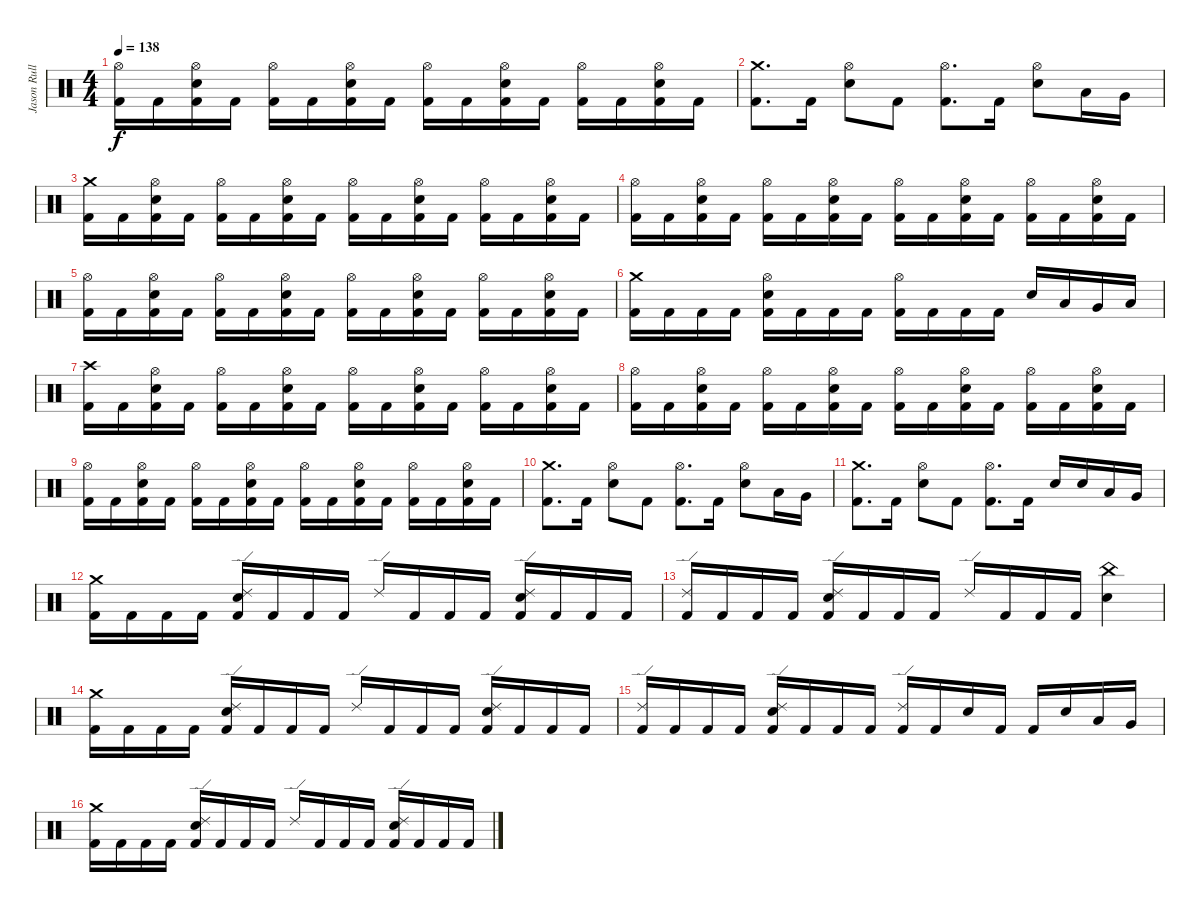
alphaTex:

\track ("Jason Rullo" "Jason Rull") {instrument percussion}
\staff {score}
\articulation defaults
\ts (4 4)
\tempo 138
\clef neutral
\ks c
("Hi-Hat (open)" "Kick (hit) 2").16{dy f} "Kick (hit) 2".16 ("Hi-Hat (open)" "Electric Snare (hit)" "Kick (hit) 2").16 "Kick (hit) 2".16 ("Hi-Hat (open)" "Kick (hit) 2").16 "Kick (hit) 2".16 ("Hi-Hat (open)" "Electric Snare (hit)" "Kick (hit) 2").16 "Kick (hit) 2".16 ("Hi-Hat (open)" "Kick (hit) 2").16 "Kick (hit) 2".16 ("Hi-Hat (open)" "Electric Snare (hit)" "Kick (hit) 2").16 "Kick (hit) 2".16 ("Hi-Hat (open)" "Kick (hit) 2").16 "Kick (hit) 2".16 ("Hi-Hat (open)" "Electric Snare (hit)" "Kick (hit) 2").16 "Kick (hit) 2".16 |
("Crash medium (hit)" "Kick (hit) 2").8{d} "Kick (hit) 2".16 ("Hi-Hat (open)" "Electric Snare (hit)").8 "Kick (hit) 2".8 ("Hi-Hat (open)" "Kick (hit) 2").8{d} "Kick (hit) 2".16 ("Hi-Hat (open)" "Electric Snare (hit)").8 "Low Tom (hit)".16 "Very Low Tom (hit)".16 |
("Crash medium (hit)" "Kick (hit) 2").16 "Kick (hit) 2".16 ("Hi-Hat (open)" "Electric Snare (hit)" "Kick (hit) 2").16 "Kick (hit) 2".16 ("Hi-Hat (open)" "Kick (hit) 2").16 "Kick (hit) 2".16 ("Hi-Hat (open)" "Electric Snare (hit)" "Kick (hit) 2").16 "Kick (hit) 2".16 ("Hi-Hat (open)" "Kick (hit) 2").16 "Kick (hit) 2".16 ("Hi-Hat (open)" "Electric Snare (hit)" "Kick (hit) 2").16 "Kick (hit) 2".16 ("Hi-Hat (open)" "Kick (hit) 2").16 "Kick (hit) 2".16 ("Hi-Hat (open)" "Electric Snare (hit)" "Kick (hit) 2").16 "Kick (hit) 2".16 |
("Hi-Hat (open)" "Kick (hit) 2").16 "Kick (hit) 2".16 ("Hi-Hat (open)" "Electric Snare (hit)" "Kick (hit) 2").16 "Kick (hit) 2".16 ("Hi-Hat (open)" "Kick (hit) 2").16 "Kick (hit) 2".16 ("Hi-Hat (open)" "Electric Snare (hit)" "Kick (hit) 2").16 "Kick (hit) 2".16 ("Hi-Hat (open)" "Kick (hit) 2").16 "Kick (hit) 2".16 ("Hi-Hat (open)" "Electric Snare (hit)" "Kick (hit) 2").16 "Kick (hit) 2".16 ("Hi-Hat (open)" "Kick (hit) 2").16 "Kick (hit) 2".16 ("Hi-Hat (open)" "Electric Snare (hit)" "Kick (hit) 2").16 "Kick (hit) 2".16 |
("Hi-Hat (open)" "Kick (hit) 2").16 "Kick (hit) 2".16 ("Hi-Hat (open)" "Electric Snare (hit)" "Kick (hit) 2").16 "Kick (hit) 2".16 ("Hi-Hat (open)" "Kick (hit) 2").16 "Kick (hit) 2".16 ("Hi-Hat (open)" "Electric Snare (hit)" "Kick (hit) 2").16 "Kick (hit) 2".16 ("Hi-Hat (open)" "Kick (hit) 2").16 "Kick (hit) 2".16 ("Hi-Hat (open)" "Electric Snare (hit)" "Kick (hit) 2").16 "Kick (hit) 2".16 ("Hi-Hat (open)" "Kick (hit) 2").16 "Kick (hit) 2".16 ("Hi-Hat (open)" "Electric Snare (hit)" "Kick (hit) 2").16 "Kick (hit) 2".16 |
("Crash medium (hit)" "Kick (hit) 2").16 "Kick (hit) 2".16 "Kick (hit) 2".16 "Kick (hit) 2".16 ("Hi-Hat (open)" "Electric Snare (hit)" "Kick (hit) 2").16 "Kick (hit) 2".16 "Kick (hit) 2".16 "Kick (hit) 2".16 ("Hi-Hat (open)" "Kick (hit) 2").16 "Kick (hit) 2".16 "Kick (hit) 2".16 "Kick (hit) 2".16 "Electric Snare (hit)".16 "Low Tom (hit)".16 "Very Low Tom (hit)".16 "Low Floor Tom (hit)".16 |
("Crash high (hit)" "Kick (hit) 2").16 "Kick (hit) 2".16 ("Hi-Hat (open)" "Electric Snare (hit)" "Kick (hit) 2").16 "Kick (hit) 2".16 ("Hi-Hat (open)" "Kick (hit) 2").16 "Kick (hit) 2".16 ("Hi-Hat (open)" "Electric Snare (hit)" "Kick (hit) 2").16 "Kick (hit) 2".16 ("Hi-Hat (open)" "Kick (hit) 2").16 "Kick (hit) 2".16 ("Hi-Hat (open)" "Electric Snare (hit)" "Kick (hit) 2").16 "Kick (hit) 2".16 ("Hi-Hat (open)" "Kick (hit) 2").16 "Kick (hit) 2".16 ("Hi-Hat (open)" "Electric Snare (hit)" "Kick (hit) 2").16 "Kick (hit) 2".16 |
("Hi-Hat (open)" "Kick (hit) 2").16 "Kick (hit) 2".16 ("Hi-Hat (open)" "Electric Snare (hit)" "Kick (hit) 2").16 "Kick (hit) 2".16 ("Hi-Hat (open)" "Kick (hit) 2").16 "Kick (hit) 2".16 ("Hi-Hat (open)" "Electric Snare (hit)" "Kick (hit) 2").16 "Kick (hit) 2".16 ("Hi-Hat (open)" "Kick (hit) 2").16 "Kick (hit) 2".16 ("Hi-Hat (open)" "Electric Snare (hit)" "Kick (hit) 2").16 "Kick (hit) 2".16 ("Hi-Hat (open)" "Kick (hit) 2").16 "Kick (hit) 2".16 ("Hi-Hat (open)" "Electric Snare (hit)" "Kick (hit) 2").16 "Kick (hit) 2".16 |
("Hi-Hat (open)" "Kick (hit) 2").16 "Kick (hit) 2".16 ("Hi-Hat (open)" "Electric Snare (hit)" "Kick (hit) 2").16 "Kick (hit) 2".16 ("Hi-Hat (open)" "Kick (hit) 2").16 "Kick (hit) 2".16 ("Hi-Hat (open)" "Electric Snare (hit)" "Kick (hit) 2").16 "Kick (hit) 2".16 ("Hi-Hat (open)" "Kick (hit) 2").16 "Kick (hit) 2".16 ("Hi-Hat (open)" "Electric Snare (hit)" "Kick (hit) 2").16 "Kick (hit) 2".16 ("Hi-Hat (open)" "Kick (hit) 2").16 "Kick (hit) 2".16 ("Hi-Hat (open)" "Electric Snare (hit)" "Kick (hit) 2").16 "Kick (hit) 2".16 |
("Crash medium (hit)" "Kick (hit) 2").8{d} "Kick (hit) 2".16 ("Hi-Hat (open)" "Electric Snare (hit)").8 "Kick (hit) 2".8 ("Hi-Hat (open)" "Kick (hit) 2").8{d} "Kick (hit) 2".16 ("Hi-Hat (open)" "Electric Snare (hit)").8 "Low Tom (hit)".16 "Very Low Tom (hit)".16 |
("Crash medium (hit)" "Kick (hit) 2").8{d} "Kick (hit) 2".16 ("Hi-Hat (open)" "Electric Snare (hit)").8 "Kick (hit) 2".8 ("Hi-Hat (open)" "Kick (hit) 2").8{d} "Kick (hit) 2".16 "Electric Snare (hit)".16 "Electric Snare (hit)".16 "Low Tom (hit)".16 "Very Low Tom (hit)".16 |
("Kick (hit) 2" "Crash medium (hit)").16 "Kick (hit) 2".16 "Kick (hit) 2".16 "Kick (hit) 2".16 ("Electric Snare (hit)" "Kick (hit) 2" "Ride (edge) 2").16 "Kick (hit) 2".16 "Kick (hit) 2".16 "Kick (hit) 2".16 "Ride (edge) 2".16 "Kick (hit) 2".16 "Kick (hit) 2".16 "Kick (hit) 2".16 ("Electric Snare (hit)" "Kick (hit) 2" "Ride (edge) 2").16 "Kick (hit) 2".16 "Kick (hit) 2".16 "Kick (hit) 2".16 |
("Kick (hit) 2" "Ride (edge) 2").16 "Kick (hit) 2".16 "Kick (hit) 2".16 "Kick (hit) 2".16 ("Electric Snare (hit)" "Kick (hit) 2" "Ride (edge) 2").16 "Kick (hit) 2".16 "Kick (hit) 2".16 "Kick (hit) 2".16 "Ride (edge) 2".16 "Kick (hit) 2".16 "Kick (hit) 2".16 "Kick (hit) 2".16 ("China (hit)" "Electric Snare (hit)").4 |
("Kick (hit) 2" "Crash medium (hit)").16 "Kick (hit) 2".16 "Kick (hit) 2".16 "Kick (hit) 2".16 ("Electric Snare (hit)" "Kick (hit) 2" "Ride (edge) 2").16 "Kick (hit) 2".16 "Kick (hit) 2".16 "Kick (hit) 2".16 "Ride (edge) 2".16 "Kick (hit) 2".16 "Kick (hit) 2".16 "Kick (hit) 2".16 ("Electric Snare (hit)" "Kick (hit) 2" "Ride (edge) 2").16 "Kick (hit) 2".16 "Kick (hit) 2".16 "Kick (hit) 2".16 |
("Ride (edge) 2" "Kick (hit) 2").16 "Kick (hit) 2".16 "Kick (hit) 2".16 "Kick (hit) 2".16 ("Electric Snare (hit)" "Ride (edge) 2" "Kick (hit) 2").16 "Kick (hit) 2".16 "Kick (hit) 2".16 "Kick (hit) 2".16 ("Ride (edge) 2" "Kick (hit) 2").16 "Kick (hit) 2".16 "Electric Snare (hit)".16 "Kick (hit) 2".16 "Kick (hit) 2".16 "Electric Snare (hit)".16 "Low Tom (hit)".16 "Very Low Tom (hit)".16 |
("Kick (hit) 2" "Crash medium (hit)").16 "Kick (hit) 2".16 "Kick (hit) 2".16 "Kick (hit) 2".16 ("Electric Snare (hit)" "Kick (hit) 2" "Ride (edge) 2").16 "Kick (hit) 2".16 "Kick (hit) 2".16 "Kick (hit) 2".16 "Ride (edge) 2".16 "Kick (hit) 2".16 "Kick (hit) 2".16 "Kick (hit) 2".16 ("Electric Snare (hit)" "Kick (hit) 2" "Ride (edge) 2").16 "Kick (hit) 2".16 "Kick (hit) 2".16 "Kick (hit) 2".16
